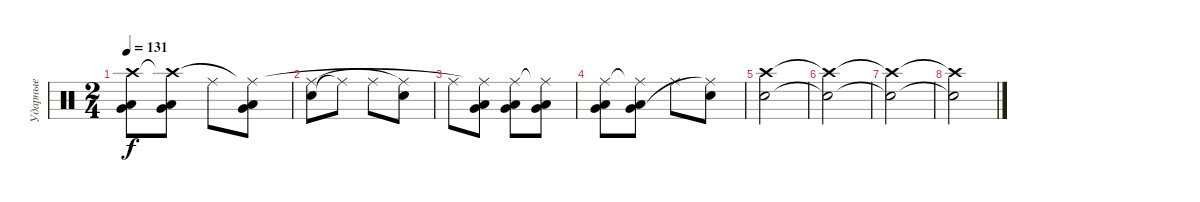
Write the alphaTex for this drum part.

\track ("Ударные" "Ударные") {instrument percussion}
\staff {score}
\articulation defaults
\ts (2 4)
\tempo 131
\clef neutral
\ks c
("Low Floor Tom (hit)" "Very Low Tom (hit)" "Crash high (hit)").8{dy f} ("Low Floor Tom (hit)" "Very Low Tom (hit)" "Crash high (hit)"{t}).8 "Ride (middle)".8 ("Low Floor Tom (hit)" "Very Low Tom (hit)" "Ride (middle)"{t}).8 |
("Electric Snare (hit)" "Ride (middle)").8 "Ride (middle)"{t}.8 "Ride (middle)".8 ("Electric Snare (hit)" "Ride (middle)"{t}).8 |
"Ride (middle)".8 ("Low Floor Tom (hit)" "Very Low Tom (hit)" "Ride (middle)"{t}).8 ("Low Floor Tom (hit)" "Very Low Tom (hit)" "Ride (middle)").8 ("Low Floor Tom (hit)" "Very Low Tom (hit)" "Ride (middle)"{t}).8 |
("Low Floor Tom (hit)" "Very Low Tom (hit)" "Ride (middle)").8 ("Low Floor Tom (hit)" "Very Low Tom (hit)" "Ride (middle)"{t}).8 "Ride (middle)".8 ("Electric Snare (hit)" "Ride (middle)"{t}).8 |
("Crash high (hit)" "Electric Snare (hit)").2 |
("Crash high (hit)"{t} "Electric Snare (hit)"{t}).2 |
("Crash high (hit)"{t} "Electric Snare (hit)"{t}).2 |
("Crash high (hit)"{t} "Electric Snare (hit)"{t}).2
